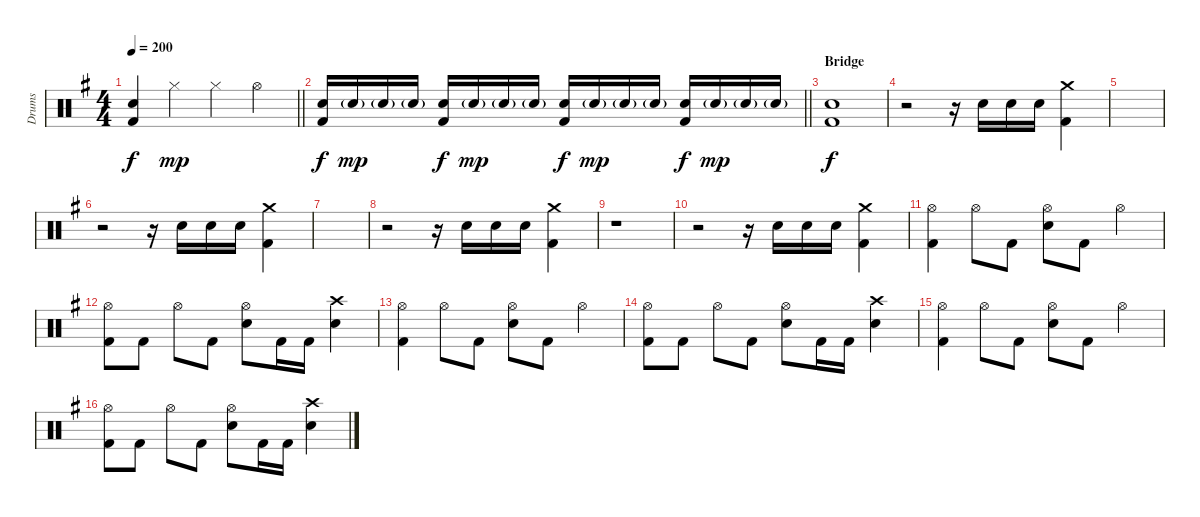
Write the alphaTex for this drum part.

\track ("Drums" "Drums") {instrument percussion}
\staff {score}
\articulation defaults
\ts (4 4)
\tempo 200
\clef neutral
\barLineRight lightlight
\ks eminor
("Snare (hit) 2" "Kick (hit) 2").4{dy f} "Hi-Hat (closed)".4{dy mp} "Hi-Hat (closed)".4 "Hi-Hat (open)".4 |
\barLineRight lightlight
("Snare (hit) 2" "Kick (hit) 2").16{dy f} "Snare (hit) 2"{g}.16{dy mp} "Snare (hit) 2"{g}.16 "Snare (hit) 2"{g}.16 ("Snare (hit) 2" "Kick (hit) 2").16{dy f} "Snare (hit) 2"{g}.16{dy mp} "Snare (hit) 2"{g}.16 "Snare (hit) 2"{g}.16 ("Snare (hit) 2" "Kick (hit) 2").16{dy f} "Snare (hit) 2"{g}.16{dy mp} "Snare (hit) 2"{g}.16 "Snare (hit) 2"{g}.16 ("Snare (hit) 2" "Kick (hit) 2").16{dy f} "Snare (hit) 2"{g}.16{dy mp} "Snare (hit) 2"{g}.16 "Snare (hit) 2"{g}.16 |
\section ("" "Bridge")
("Snare (hit) 2" "Kick (hit) 2").1{dy f} |
r.2 r.16 "Snare (hit) 2".16 "Snare (hit) 2".16 "Snare (hit) 2".16 ("Crash medium (hit)" "Kick (hit) 2").4 |
|
r.2 r.16 "Snare (hit) 2".16 "Snare (hit) 2".16 "Snare (hit) 2".16 ("Crash medium (hit)" "Kick (hit) 2").4 |
|
r.2 r.16 "Snare (hit) 2".16 "Snare (hit) 2".16 "Snare (hit) 2".16 ("Crash medium (hit)" "Kick (hit) 2").4 |
r.1 |
r.2 r.16 "Snare (hit) 2".16 "Snare (hit) 2".16 "Snare (hit) 2".16 ("Crash medium (hit)" "Kick (hit) 2").4 |
("Hi-Hat (open)" "Kick (hit) 2").4 "Hi-Hat (open)".8 "Kick (hit) 2".8 ("Hi-Hat (open)" "Snare (hit) 2").8 "Kick (hit) 2".8 "Hi-Hat (open)".4 |
("Hi-Hat (open)" "Kick (hit) 2").8 "Kick (hit) 2".8 "Hi-Hat (open)".8 "Kick (hit) 2".8 ("Hi-Hat (open)" "Snare (hit) 2").8 "Kick (hit) 2".16 "Kick (hit) 2".16 ("Crash high (hit)" "Snare (hit) 2").4 |
("Hi-Hat (open)" "Kick (hit) 2").4 "Hi-Hat (open)".8 "Kick (hit) 2".8 ("Hi-Hat (open)" "Snare (hit) 2").8 "Kick (hit) 2".8 "Hi-Hat (open)".4 |
("Hi-Hat (open)" "Kick (hit) 2").8 "Kick (hit) 2".8 "Hi-Hat (open)".8 "Kick (hit) 2".8 ("Hi-Hat (open)" "Snare (hit) 2").8 "Kick (hit) 2".16 "Kick (hit) 2".16 ("Crash high (hit)" "Snare (hit) 2").4 |
("Hi-Hat (open)" "Kick (hit) 2").4 "Hi-Hat (open)".8 "Kick (hit) 2".8 ("Hi-Hat (open)" "Snare (hit) 2").8 "Kick (hit) 2".8 "Hi-Hat (open)".4 |
("Hi-Hat (open)" "Kick (hit) 2").8 "Kick (hit) 2".8 "Hi-Hat (open)".8 "Kick (hit) 2".8 ("Hi-Hat (open)" "Snare (hit) 2").8 "Kick (hit) 2".16 "Kick (hit) 2".16 ("Crash high (hit)" "Snare (hit) 2").4
